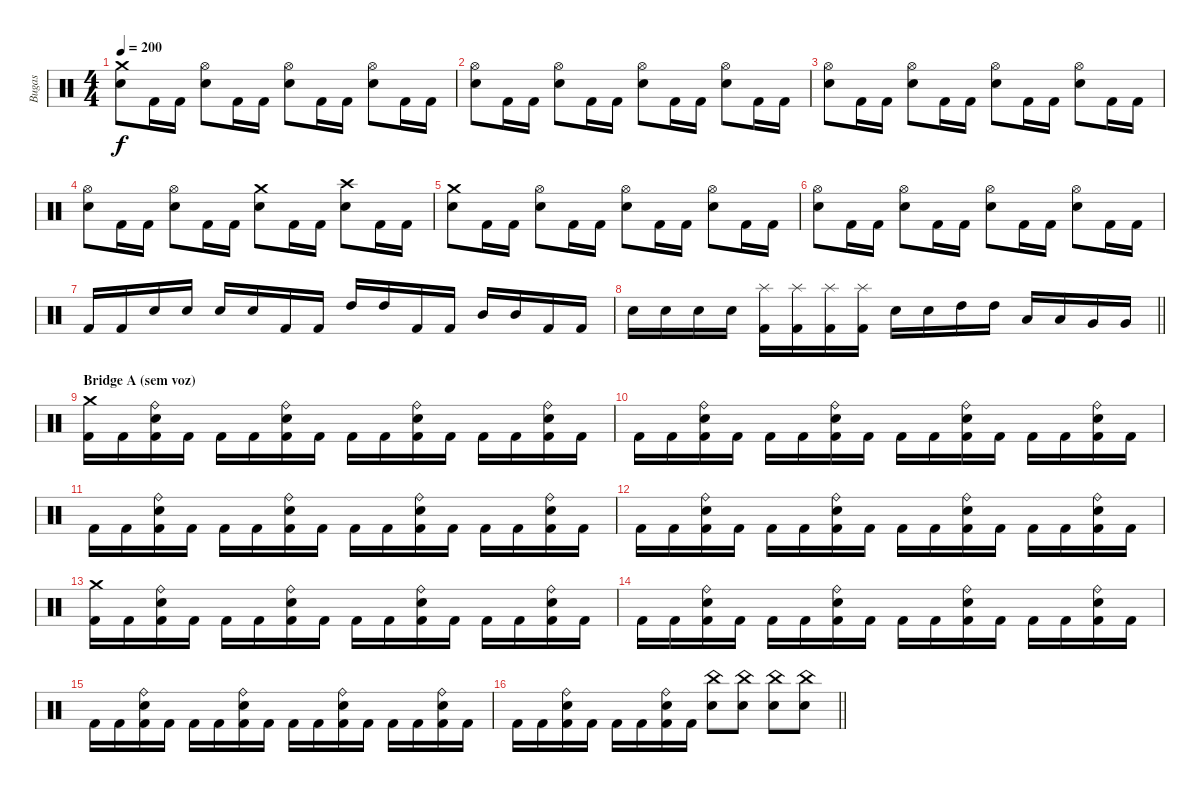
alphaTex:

\track ("Bugas" "Bugas") {instrument percussion}
\staff {score}
\articulation defaults
\ts (4 4)
\tempo 200
\clef neutral
\ks c
("Crash medium (hit)" "Electric Snare (hit)").8{dy f} "Kick (hit) 2".16 "Kick (hit) 2".16 ("Hi-Hat (open)" "Electric Snare (hit)").8 "Kick (hit) 2".16 "Kick (hit) 2".16 ("Hi-Hat (open)" "Electric Snare (hit)").8 "Kick (hit) 2".16 "Kick (hit) 2".16 ("Hi-Hat (open)" "Electric Snare (hit)").8 "Kick (hit) 2".16 "Kick (hit) 2".16 |
("Hi-Hat (open)" "Electric Snare (hit)").8 "Kick (hit) 2".16 "Kick (hit) 2".16 ("Hi-Hat (open)" "Electric Snare (hit)").8 "Kick (hit) 2".16 "Kick (hit) 2".16 ("Hi-Hat (open)" "Electric Snare (hit)").8 "Kick (hit) 2".16 "Kick (hit) 2".16 ("Hi-Hat (open)" "Electric Snare (hit)").8 "Kick (hit) 2".16 "Kick (hit) 2".16 |
("Hi-Hat (open)" "Electric Snare (hit)").8 "Kick (hit) 2".16 "Kick (hit) 2".16 ("Hi-Hat (open)" "Electric Snare (hit)").8 "Kick (hit) 2".16 "Kick (hit) 2".16 ("Hi-Hat (open)" "Electric Snare (hit)").8 "Kick (hit) 2".16 "Kick (hit) 2".16 ("Hi-Hat (open)" "Electric Snare (hit)").8 "Kick (hit) 2".16 "Kick (hit) 2".16 |
("Hi-Hat (open)" "Electric Snare (hit)").8 "Kick (hit) 2".16 "Kick (hit) 2".16 ("Hi-Hat (open)" "Electric Snare (hit)").8 "Kick (hit) 2".16 "Kick (hit) 2".16 ("Crash medium (hit)" "Electric Snare (hit)").8 "Kick (hit) 2".16 "Kick (hit) 2".16 ("Crash high (hit)" "Electric Snare (hit)").8 "Kick (hit) 2".16 "Kick (hit) 2".16 |
("Crash medium (hit)" "Electric Snare (hit)").8 "Kick (hit) 2".16 "Kick (hit) 2".16 ("Hi-Hat (open)" "Electric Snare (hit)").8 "Kick (hit) 2".16 "Kick (hit) 2".16 ("Hi-Hat (open)" "Electric Snare (hit)").8 "Kick (hit) 2".16 "Kick (hit) 2".16 ("Hi-Hat (open)" "Electric Snare (hit)").8 "Kick (hit) 2".16 "Kick (hit) 2".16 |
("Hi-Hat (open)" "Electric Snare (hit)").8 "Kick (hit) 2".16 "Kick (hit) 2".16 ("Hi-Hat (open)" "Electric Snare (hit)").8 "Kick (hit) 2".16 "Kick (hit) 2".16 ("Hi-Hat (open)" "Electric Snare (hit)").8 "Kick (hit) 2".16 "Kick (hit) 2".16 ("Hi-Hat (open)" "Electric Snare (hit)").8 "Kick (hit) 2".16 "Kick (hit) 2".16 |
"Kick (hit) 2".16 "Kick (hit) 2".16 "Electric Snare (hit)".16 "Electric Snare (hit)".16 "Electric Snare (hit)".16 "Electric Snare (hit)".16 "Kick (hit) 2".16 "Kick (hit) 2".16 "High Tom (hit)".16 "High Tom (hit)".16 "Kick (hit) 2".16 "Kick (hit) 2".16 "Mid Tom (hit)".16 "Mid Tom (hit)".16 "Kick (hit) 2".16 "Kick (hit) 2".16 |
\barLineRight lightlight "Electric Snare (hit)".16 "Electric Snare (hit)".16 "Electric Snare (hit)".16 "Electric Snare (hit)".16
("Splash (hit)" "Kick (hit) 2").16 ("Splash (hit)" "Kick (hit) 2").16 ("Splash (hit)" "Kick (hit) 2").16 ("Splash (hit)" "Kick (hit) 2").16 "Electric Snare (hit)".16 "Electric Snare (hit)".16 "High Tom (hit)".16 "High Tom (hit)".16 "Low Tom (hit)".16 "Low Tom (hit)".16 "Very Low Tom (hit)".16 "Very Low Tom (hit)".16 |
\section ("" "Bridge A (sem voz)")
("Crash medium (hit)" "Kick (hit) 2").16 "Kick (hit) 2".16 ("Ride (bell)" "Electric Snare (hit)" "Kick (hit) 2").16 "Kick (hit) 2".16 "Kick (hit) 2".16 "Kick (hit) 2".16 ("Ride (bell)" "Electric Snare (hit)" "Kick (hit) 2").16 "Kick (hit) 2".16 "Kick (hit) 2".16 "Kick (hit) 2".16 ("Ride (bell)" "Electric Snare (hit)" "Kick (hit) 2").16 "Kick (hit) 2".16 "Kick (hit) 2".16 "Kick (hit) 2".16 ("Ride (bell)" "Electric Snare (hit)" "Kick (hit) 2").16 "Kick (hit) 2".16 |
"Kick (hit) 2".16 "Kick (hit) 2".16 ("Ride (bell)" "Electric Snare (hit)" "Kick (hit) 2").16 "Kick (hit) 2".16 "Kick (hit) 2".16 "Kick (hit) 2".16 ("Ride (bell)" "Electric Snare (hit)" "Kick (hit) 2").16 "Kick (hit) 2".16 "Kick (hit) 2".16 "Kick (hit) 2".16 ("Ride (bell)" "Electric Snare (hit)" "Kick (hit) 2").16 "Kick (hit) 2".16 "Kick (hit) 2".16 "Kick (hit) 2".16 ("Ride (bell)" "Electric Snare (hit)" "Kick (hit) 2").16 "Kick (hit) 2".16 |
"Kick (hit) 2".16 "Kick (hit) 2".16 ("Ride (bell)" "Electric Snare (hit)" "Kick (hit) 2").16 "Kick (hit) 2".16 "Kick (hit) 2".16 "Kick (hit) 2".16 ("Ride (bell)" "Electric Snare (hit)" "Kick (hit) 2").16 "Kick (hit) 2".16 "Kick (hit) 2".16 "Kick (hit) 2".16 ("Ride (bell)" "Electric Snare (hit)" "Kick (hit) 2").16 "Kick (hit) 2".16 "Kick (hit) 2".16 "Kick (hit) 2".16 ("Ride (bell)" "Electric Snare (hit)" "Kick (hit) 2").16 "Kick (hit) 2".16 |
"Kick (hit) 2".16 "Kick (hit) 2".16 ("Ride (bell)" "Electric Snare (hit)" "Kick (hit) 2").16 "Kick (hit) 2".16 "Kick (hit) 2".16 "Kick (hit) 2".16 ("Ride (bell)" "Electric Snare (hit)" "Kick (hit) 2").16 "Kick (hit) 2".16 "Kick (hit) 2".16 "Kick (hit) 2".16 ("Ride (bell)" "Electric Snare (hit)" "Kick (hit) 2").16 "Kick (hit) 2".16 "Kick (hit) 2".16 "Kick (hit) 2".16 ("Ride (bell)" "Electric Snare (hit)" "Kick (hit) 2").16 "Kick (hit) 2".16 |
("Crash medium (hit)" "Kick (hit) 2").16 "Kick (hit) 2".16 ("Ride (bell)" "Electric Snare (hit)" "Kick (hit) 2").16 "Kick (hit) 2".16 "Kick (hit) 2".16 "Kick (hit) 2".16 ("Ride (bell)" "Electric Snare (hit)" "Kick (hit) 2").16 "Kick (hit) 2".16 "Kick (hit) 2".16 "Kick (hit) 2".16 ("Ride (bell)" "Electric Snare (hit)" "Kick (hit) 2").16 "Kick (hit) 2".16 "Kick (hit) 2".16 "Kick (hit) 2".16 ("Ride (bell)" "Electric Snare (hit)" "Kick (hit) 2").16 "Kick (hit) 2".16 |
"Kick (hit) 2".16 "Kick (hit) 2".16 ("Ride (bell)" "Electric Snare (hit)" "Kick (hit) 2").16 "Kick (hit) 2".16 "Kick (hit) 2".16 "Kick (hit) 2".16 ("Ride (bell)" "Electric Snare (hit)" "Kick (hit) 2").16 "Kick (hit) 2".16 "Kick (hit) 2".16 "Kick (hit) 2".16 ("Ride (bell)" "Electric Snare (hit)" "Kick (hit) 2").16 "Kick (hit) 2".16 "Kick (hit) 2".16 "Kick (hit) 2".16 ("Ride (bell)" "Electric Snare (hit)" "Kick (hit) 2").16 "Kick (hit) 2".16 |
"Kick (hit) 2".16 "Kick (hit) 2".16 ("Ride (bell)" "Electric Snare (hit)" "Kick (hit) 2").16 "Kick (hit) 2".16 "Kick (hit) 2".16 "Kick (hit) 2".16 ("Ride (bell)" "Electric Snare (hit)" "Kick (hit) 2").16 "Kick (hit) 2".16 "Kick (hit) 2".16 "Kick (hit) 2".16 ("Ride (bell)" "Electric Snare (hit)" "Kick (hit) 2").16 "Kick (hit) 2".16 "Kick (hit) 2".16 "Kick (hit) 2".16 ("Ride (bell)" "Electric Snare (hit)" "Kick (hit) 2").16 "Kick (hit) 2".16 |
\barLineRight lightlight "Kick (hit) 2".16 "Kick (hit) 2".16
("Ride (bell)" "Electric Snare (hit)" "Kick (hit) 2").16 "Kick (hit) 2".16 "Kick (hit) 2".16 "Kick (hit) 2".16 ("Ride (bell)" "Electric Snare (hit)" "Kick (hit) 2").16 "Kick (hit) 2".16 ("China (hit)" "Electric Snare (hit)").8 ("China (hit)" "Electric Snare (hit)").8 ("China (hit)" "Electric Snare (hit)").8 ("China (hit)" "Electric Snare (hit)").8
